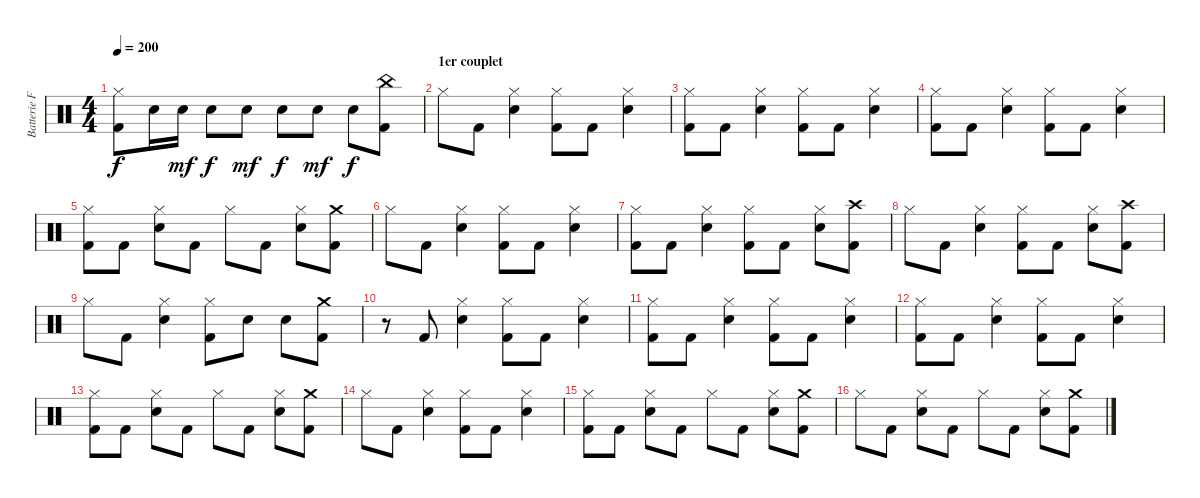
\track ("Batterie Franck" "Batterie F") {instrument percussion}
\staff {score}
\articulation defaults
\ts (4 4)
\tempo 200
\clef neutral
\ks c
("Hi-Hat (closed)" "Kick (hit) 2").8{dy f} "Snare (hit) 2".16 "Snare (hit) 2".16{dy mf} "Snare (hit) 2".8{dy f} "Snare (hit) 2".8{dy mf} "Snare (hit) 2".8{dy f} "Snare (hit) 2".8{dy mf} "Snare (hit) 2".8{dy f} ("China (hit)" "Kick (hit) 2").8 |
\section ("" "1er couplet")
"Hi-Hat (closed)".8 "Kick (hit) 2".8 ("Hi-Hat (closed)" "Snare (hit) 2").4 ("Hi-Hat (closed)" "Kick (hit) 2").8 "Kick (hit) 2".8 ("Hi-Hat (closed)" "Snare (hit) 2").4 |
("Hi-Hat (closed)" "Kick (hit) 2").8 "Kick (hit) 2".8 ("Hi-Hat (closed)" "Snare (hit) 2").4 ("Hi-Hat (closed)" "Kick (hit) 2").8 "Kick (hit) 2".8 ("Hi-Hat (closed)" "Snare (hit) 2").4 |
("Hi-Hat (closed)" "Kick (hit) 2").8 "Kick (hit) 2".8 ("Hi-Hat (closed)" "Snare (hit) 2").4 ("Hi-Hat (closed)" "Kick (hit) 2").8 "Kick (hit) 2".8 ("Hi-Hat (closed)" "Snare (hit) 2").4 |
("Hi-Hat (closed)" "Kick (hit) 2").8 "Kick (hit) 2".8 ("Hi-Hat (closed)" "Snare (hit) 2").8 "Kick (hit) 2".8 "Hi-Hat (closed)".8 "Kick (hit) 2".8 ("Hi-Hat (closed)" "Snare (hit) 2").8 ("Crash medium (hit)" "Kick (hit) 2").8 |
"Hi-Hat (closed)".8 "Kick (hit) 2".8 ("Hi-Hat (closed)" "Snare (hit) 2").4 ("Hi-Hat (closed)" "Kick (hit) 2").8 "Kick (hit) 2".8 ("Hi-Hat (closed)" "Snare (hit) 2").4 |
("Hi-Hat (closed)" "Kick (hit) 2").8 "Kick (hit) 2".8 ("Hi-Hat (closed)" "Snare (hit) 2").4 ("Hi-Hat (closed)" "Kick (hit) 2").8 "Kick (hit) 2".8 ("Hi-Hat (closed)" "Snare (hit) 2").8 ("Crash high (hit)" "Kick (hit) 2").8 |
"Hi-Hat (closed)".8 "Kick (hit) 2".8 ("Hi-Hat (closed)" "Snare (hit) 2").4 ("Hi-Hat (closed)" "Kick (hit) 2").8 "Kick (hit) 2".8 ("Hi-Hat (closed)" "Snare (hit) 2").8 ("Crash high (hit)" "Kick (hit) 2").8 |
"Hi-Hat (closed)".8 "Kick (hit) 2".8 ("Hi-Hat (closed)" "Snare (hit) 2").4 ("Hi-Hat (closed)" "Kick (hit) 2").8 "Snare (hit) 2".8 "Snare (hit) 2".8 ("Crash medium (hit)" "Kick (hit) 2").8 |
r.8 "Kick (hit) 2".8 ("Hi-Hat (closed)" "Snare (hit) 2").4 ("Hi-Hat (closed)" "Kick (hit) 2").8 "Kick (hit) 2".8 ("Hi-Hat (closed)" "Snare (hit) 2").4 |
("Hi-Hat (closed)" "Kick (hit) 2").8 "Kick (hit) 2".8 ("Hi-Hat (closed)" "Snare (hit) 2").4 ("Hi-Hat (closed)" "Kick (hit) 2").8 "Kick (hit) 2".8 ("Hi-Hat (closed)" "Snare (hit) 2").4 |
("Hi-Hat (closed)" "Kick (hit) 2").8 "Kick (hit) 2".8 ("Hi-Hat (closed)" "Snare (hit) 2").4 ("Hi-Hat (closed)" "Kick (hit) 2").8 "Kick (hit) 2".8 ("Hi-Hat (closed)" "Snare (hit) 2").4 |
("Hi-Hat (closed)" "Kick (hit) 2").8 "Kick (hit) 2".8 ("Hi-Hat (closed)" "Snare (hit) 2").8 "Kick (hit) 2".8 "Hi-Hat (closed)".8 "Kick (hit) 2".8 ("Hi-Hat (closed)" "Snare (hit) 2").8 ("Crash medium (hit)" "Kick (hit) 2").8 |
"Hi-Hat (closed)".8 "Kick (hit) 2".8 ("Hi-Hat (closed)" "Snare (hit) 2").4 ("Hi-Hat (closed)" "Kick (hit) 2").8 "Kick (hit) 2".8 ("Hi-Hat (closed)" "Snare (hit) 2").4 |
("Hi-Hat (closed)" "Kick (hit) 2").8 "Kick (hit) 2".8 ("Hi-Hat (closed)" "Snare (hit) 2").8 "Kick (hit) 2".8 "Hi-Hat (closed)".8 "Kick (hit) 2".8 ("Hi-Hat (closed)" "Snare (hit) 2").8 ("Crash medium (hit)" "Kick (hit) 2").8 |
"Hi-Hat (closed)".8 "Kick (hit) 2".8 ("Hi-Hat (closed)" "Snare (hit) 2").8 "Kick (hit) 2".8 "Hi-Hat (closed)".8 "Kick (hit) 2".8 ("Hi-Hat (closed)" "Snare (hit) 2").8 ("Crash medium (hit)" "Kick (hit) 2").8
